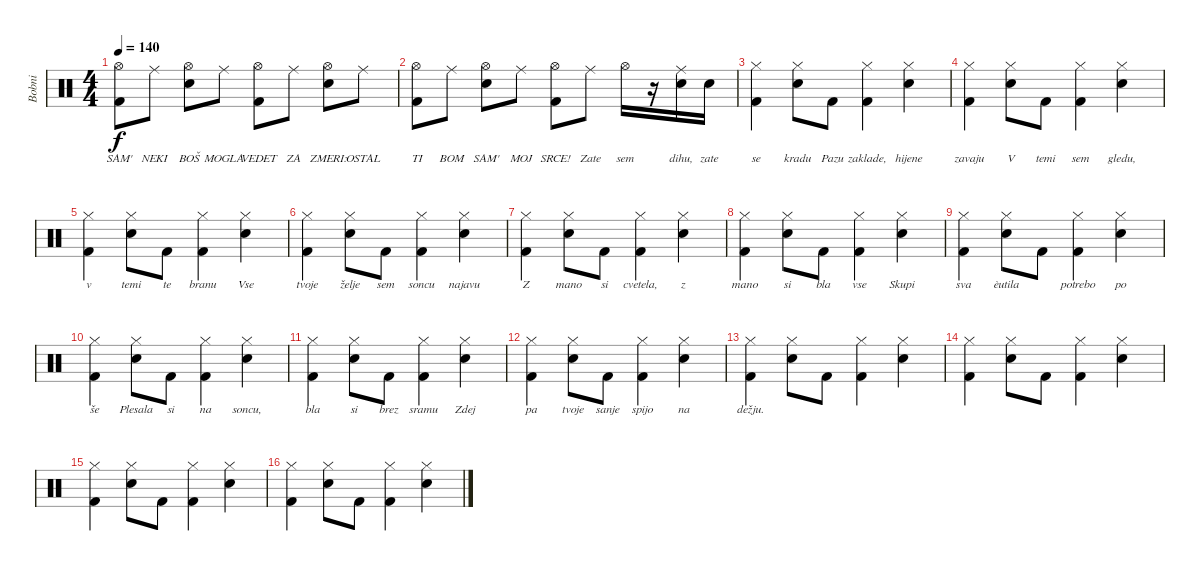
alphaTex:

\track ("Bobni" "Bobni") {instrument percussion}
\staff {score}
\articulation defaults
\ts (4 4)
\tempo 140
\clef neutral
\ks c
("Hi-Hat (open)" "Kick (hit) 2").8{lyrics (0 "SAM'") lyrics (1 "") lyrics (2 "") lyrics (3 "") lyrics (4 "") dy f} "Ride (middle)".8{lyrics (0 "NEKI") lyrics (1 "") lyrics (2 "") lyrics (3 "") lyrics (4 "")} ("Hi-Hat (open)" "Snare (hit) 2").8{lyrics (0 "BOŠ") lyrics (1 "") lyrics (2 "") lyrics (3 "") lyrics (4 "")} "Ride (middle)".8{lyrics (0 "MOGLA") lyrics (1 "") lyrics (2 "") lyrics (3 "") lyrics (4 "")} ("Hi-Hat (open)" "Kick (hit) 2").8{lyrics (0 "VEDET") lyrics (1 "") lyrics (2 "") lyrics (3 "") lyrics (4 "")} "Ride (middle)".8{lyrics (0 "ZA") lyrics (1 "") lyrics (2 "") lyrics (3 "") lyrics (4 "")} ("Hi-Hat (open)" "Snare (hit) 2").8{lyrics (0 "ZMERI:") lyrics (1 "") lyrics (2 "") lyrics (3 "") lyrics (4 "")} "Ride (middle)".8{lyrics (0 "OSTAL") lyrics (1 "") lyrics (2 "") lyrics (3 "") lyrics (4 "")} |
("Hi-Hat (open)" "Kick (hit) 2").8{lyrics (0 "TI") lyrics (1 "") lyrics (2 "") lyrics (3 "") lyrics (4 "")} "Ride (middle)".8{lyrics (0 "BOM") lyrics (1 "") lyrics (2 "") lyrics (3 "") lyrics (4 "")} ("Hi-Hat (open)" "Snare (hit) 2").8{lyrics (0 "SAM'") lyrics (1 "") lyrics (2 "") lyrics (3 "") lyrics (4 "")} "Ride (middle)".8{lyrics (0 "MOJ") lyrics (1 "") lyrics (2 "") lyrics (3 "") lyrics (4 "")} ("Hi-Hat (open)" "Kick (hit) 2").8{lyrics (0 "SRCE!") lyrics (1 "") lyrics (2 "") lyrics (3 "") lyrics (4 "")} "Ride (middle)".8{lyrics (0 "Zate") lyrics (1 "") lyrics (2 "") lyrics (3 "") lyrics (4 "")} "Hi-Hat (open)".16{lyrics (0 "sem") lyrics (1 "") lyrics (2 "") lyrics (3 "") lyrics (4 "")} r.16 ("Ride (middle)" "Snare (hit) 2").16{lyrics (0 "dihu,") lyrics (1 "") lyrics (2 "") lyrics (3 "") lyrics (4 "")} "Snare (hit) 2".16{lyrics (0 "zate") lyrics (1 "") lyrics (2 "") lyrics (3 "") lyrics (4 "")} |
("Hi-Hat (closed)" "Kick (hit) 2").4{lyrics (0 "se") lyrics (1 "") lyrics (2 "") lyrics (3 "") lyrics (4 "")} ("Hi-Hat (closed)" "Snare (hit) 2").8{lyrics (0 "kradu") lyrics (1 "") lyrics (2 "") lyrics (3 "") lyrics (4 "")} "Kick (hit) 2".8{lyrics (0 "Pazu") lyrics (1 "") lyrics (2 "") lyrics (3 "") lyrics (4 "")} ("Hi-Hat (closed)" "Kick (hit) 2").4{lyrics (0 "zaklade,") lyrics (1 "") lyrics (2 "") lyrics (3 "") lyrics (4 "")} ("Hi-Hat (closed)" "Snare (hit) 2").4{lyrics (0 "hijene") lyrics (1 "") lyrics (2 "") lyrics (3 "") lyrics (4 "")} |
("Hi-Hat (closed)" "Kick (hit) 2").4{lyrics (0 "zavaju") lyrics (1 "") lyrics (2 "") lyrics (3 "") lyrics (4 "")} ("Hi-Hat (closed)" "Snare (hit) 2").8{lyrics (0 "V") lyrics (1 "") lyrics (2 "") lyrics (3 "") lyrics (4 "")} "Kick (hit) 2".8{lyrics (0 "temi") lyrics (1 "") lyrics (2 "") lyrics (3 "") lyrics (4 "")} ("Hi-Hat (closed)" "Kick (hit) 2").4{lyrics (0 "sem") lyrics (1 "") lyrics (2 "") lyrics (3 "") lyrics (4 "")} ("Hi-Hat (closed)" "Snare (hit) 2").4{lyrics (0 "gledu,") lyrics (1 "") lyrics (2 "") lyrics (3 "") lyrics (4 "")} |
("Hi-Hat (closed)" "Kick (hit) 2").4{lyrics (0 "v") lyrics (1 "") lyrics (2 "") lyrics (3 "") lyrics (4 "")} ("Hi-Hat (closed)" "Snare (hit) 2").8{lyrics (0 "temi") lyrics (1 "") lyrics (2 "") lyrics (3 "") lyrics (4 "")} "Kick (hit) 2".8{lyrics (0 "te") lyrics (1 "") lyrics (2 "") lyrics (3 "") lyrics (4 "")} ("Hi-Hat (closed)" "Kick (hit) 2").4{lyrics (0 "branu") lyrics (1 "") lyrics (2 "") lyrics (3 "") lyrics (4 "")} ("Hi-Hat (closed)" "Snare (hit) 2").4{lyrics (0 "Vse") lyrics (1 "") lyrics (2 "") lyrics (3 "") lyrics (4 "")} |
("Hi-Hat (closed)" "Kick (hit) 2").4{lyrics (0 "tvoje") lyrics (1 "") lyrics (2 "") lyrics (3 "") lyrics (4 "")} ("Hi-Hat (closed)" "Snare (hit) 2").8{lyrics (0 "želje") lyrics (1 "") lyrics (2 "") lyrics (3 "") lyrics (4 "")} "Kick (hit) 2".8{lyrics (0 "sem") lyrics (1 "") lyrics (2 "") lyrics (3 "") lyrics (4 "")} ("Hi-Hat (closed)" "Kick (hit) 2").4{lyrics (0 "soncu") lyrics (1 "") lyrics (2 "") lyrics (3 "") lyrics (4 "")} ("Hi-Hat (closed)" "Snare (hit) 2").4{lyrics (0 "najavu") lyrics (1 "") lyrics (2 "") lyrics (3 "") lyrics (4 "")} |
("Hi-Hat (closed)" "Kick (hit) 2").4{lyrics (0 "Z") lyrics (1 "") lyrics (2 "") lyrics (3 "") lyrics (4 "")} ("Hi-Hat (closed)" "Snare (hit) 2").8{lyrics (0 "mano") lyrics (1 "") lyrics (2 "") lyrics (3 "") lyrics (4 "")} "Kick (hit) 2".8{lyrics (0 "si") lyrics (1 "") lyrics (2 "") lyrics (3 "") lyrics (4 "")} ("Hi-Hat (closed)" "Kick (hit) 2").4{lyrics (0 "cvetela,") lyrics (1 "") lyrics (2 "") lyrics (3 "") lyrics (4 "")} ("Hi-Hat (closed)" "Snare (hit) 2").4{lyrics (0 "z") lyrics (1 "") lyrics (2 "") lyrics (3 "") lyrics (4 "")} |
("Hi-Hat (closed)" "Kick (hit) 2").4{lyrics (0 "mano") lyrics (1 "") lyrics (2 "") lyrics (3 "") lyrics (4 "")} ("Hi-Hat (closed)" "Snare (hit) 2").8{lyrics (0 "si") lyrics (1 "") lyrics (2 "") lyrics (3 "") lyrics (4 "")} "Kick (hit) 2".8{lyrics (0 "bla") lyrics (1 "") lyrics (2 "") lyrics (3 "") lyrics (4 "")} ("Hi-Hat (closed)" "Kick (hit) 2").4{lyrics (0 "vse") lyrics (1 "") lyrics (2 "") lyrics (3 "") lyrics (4 "")} ("Hi-Hat (closed)" "Snare (hit) 2").4{lyrics (0 "Skupi") lyrics (1 "") lyrics (2 "") lyrics (3 "") lyrics (4 "")} |
("Hi-Hat (closed)" "Kick (hit) 2").4{lyrics (0 "sva") lyrics (1 "") lyrics (2 "") lyrics (3 "") lyrics (4 "")} ("Hi-Hat (closed)" "Snare (hit) 2").8{lyrics (0 "èutila") lyrics (1 "") lyrics (2 "") lyrics (3 "") lyrics (4 "")} "Kick (hit) 2".8{lyrics (0 "") lyrics (1 "") lyrics (2 "") lyrics (3 "") lyrics (4 "")} ("Hi-Hat (closed)" "Kick (hit) 2").4{lyrics (0 "potrebo") lyrics (1 "") lyrics (2 "") lyrics (3 "") lyrics (4 "")} ("Hi-Hat (closed)" "Snare (hit) 2").4{lyrics (0 "po") lyrics (1 "") lyrics (2 "") lyrics (3 "") lyrics (4 "")} |
("Hi-Hat (closed)" "Kick (hit) 2").4{lyrics (0 "še") lyrics (1 "") lyrics (2 "") lyrics (3 "") lyrics (4 "")} ("Hi-Hat (closed)" "Snare (hit) 2").8{lyrics (0 "Plesala") lyrics (1 "") lyrics (2 "") lyrics (3 "") lyrics (4 "")} "Kick (hit) 2".8{lyrics (0 "si") lyrics (1 "") lyrics (2 "") lyrics (3 "") lyrics (4 "")} ("Hi-Hat (closed)" "Kick (hit) 2").4{lyrics (0 "na") lyrics (1 "") lyrics (2 "") lyrics (3 "") lyrics (4 "")} ("Hi-Hat (closed)" "Snare (hit) 2").4{lyrics (0 "soncu,") lyrics (1 "") lyrics (2 "") lyrics (3 "") lyrics (4 "")} |
("Hi-Hat (closed)" "Kick (hit) 2").4{lyrics (0 "bla") lyrics (1 "") lyrics (2 "") lyrics (3 "") lyrics (4 "")} ("Hi-Hat (closed)" "Snare (hit) 2").8{lyrics (0 "si") lyrics (1 "") lyrics (2 "") lyrics (3 "") lyrics (4 "")} "Kick (hit) 2".8{lyrics (0 "brez") lyrics (1 "") lyrics (2 "") lyrics (3 "") lyrics (4 "")} ("Hi-Hat (closed)" "Kick (hit) 2").4{lyrics (0 "sramu") lyrics (1 "") lyrics (2 "") lyrics (3 "") lyrics (4 "")} ("Hi-Hat (closed)" "Snare (hit) 2").4{lyrics (0 "Zdej") lyrics (1 "") lyrics (2 "") lyrics (3 "") lyrics (4 "")} |
("Hi-Hat (closed)" "Kick (hit) 2").4{lyrics (0 "pa") lyrics (1 "") lyrics (2 "") lyrics (3 "") lyrics (4 "")} ("Hi-Hat (closed)" "Snare (hit) 2").8{lyrics (0 "tvoje") lyrics (1 "") lyrics (2 "") lyrics (3 "") lyrics (4 "")} "Kick (hit) 2".8{lyrics (0 "sanje") lyrics (1 "") lyrics (2 "") lyrics (3 "") lyrics (4 "")} ("Hi-Hat (closed)" "Kick (hit) 2").4{lyrics (0 "spijo") lyrics (1 "") lyrics (2 "") lyrics (3 "") lyrics (4 "")} ("Hi-Hat (closed)" "Snare (hit) 2").4{lyrics (0 "na") lyrics (1 "") lyrics (2 "") lyrics (3 "") lyrics (4 "")} |
("Hi-Hat (closed)" "Kick (hit) 2").4{lyrics (0 "dežju.") lyrics (1 "") lyrics (2 "") lyrics (3 "") lyrics (4 "")} ("Hi-Hat (closed)" "Snare (hit) 2").8 "Kick (hit) 2".8 ("Hi-Hat (closed)" "Kick (hit) 2").4 ("Hi-Hat (closed)" "Snare (hit) 2").4 |
("Hi-Hat (closed)" "Kick (hit) 2").4 ("Hi-Hat (closed)" "Snare (hit) 2").8 "Kick (hit) 2".8 ("Hi-Hat (closed)" "Kick (hit) 2").4 ("Hi-Hat (closed)" "Snare (hit) 2").4 |
("Hi-Hat (closed)" "Kick (hit) 2").4 ("Hi-Hat (closed)" "Snare (hit) 2").8 "Kick (hit) 2".8 ("Hi-Hat (closed)" "Kick (hit) 2").4 ("Hi-Hat (closed)" "Snare (hit) 2").4 |
("Hi-Hat (closed)" "Kick (hit) 2").4 ("Hi-Hat (closed)" "Snare (hit) 2").8 "Kick (hit) 2".8 ("Hi-Hat (closed)" "Kick (hit) 2").4 ("Hi-Hat (closed)" "Snare (hit) 2").4
